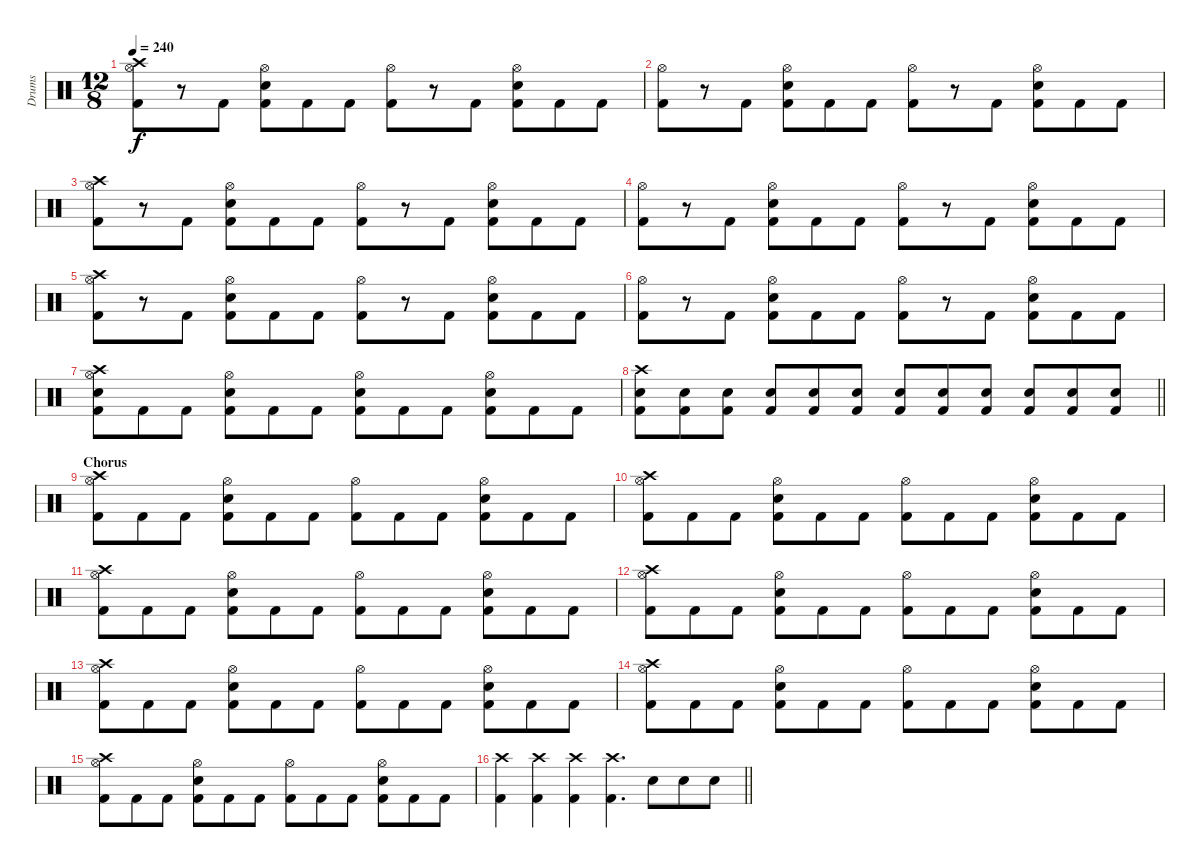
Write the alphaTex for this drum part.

\track ("Drums" "Drums") {instrument percussion}
\staff {score}
\articulation defaults
\ts (12 8)
\tempo 240
\clef neutral
\ks c
("Crash high (hit)" "Hi-Hat (open)" "Kick (hit) 2").8{dy f} r.8 "Kick (hit) 2".8 ("Hi-Hat (open)" "Snare (hit) 2" "Kick (hit) 2").8 "Kick (hit) 2".8 "Kick (hit) 2".8 ("Hi-Hat (open)" "Kick (hit) 2").8 r.8 "Kick (hit) 2".8 ("Hi-Hat (open)" "Snare (hit) 2" "Kick (hit) 2").8 "Kick (hit) 2".8 "Kick (hit) 2".8 |
("Hi-Hat (open)" "Kick (hit) 2").8 r.8 "Kick (hit) 2".8 ("Hi-Hat (open)" "Snare (hit) 2" "Kick (hit) 2").8 "Kick (hit) 2".8 "Kick (hit) 2".8 ("Hi-Hat (open)" "Kick (hit) 2").8 r.8 "Kick (hit) 2".8 ("Hi-Hat (open)" "Snare (hit) 2" "Kick (hit) 2").8 "Kick (hit) 2".8 "Kick (hit) 2".8 |
("Crash high (hit)" "Hi-Hat (open)" "Kick (hit) 2").8 r.8 "Kick (hit) 2".8 ("Hi-Hat (open)" "Snare (hit) 2" "Kick (hit) 2").8 "Kick (hit) 2".8 "Kick (hit) 2".8 ("Hi-Hat (open)" "Kick (hit) 2").8 r.8 "Kick (hit) 2".8 ("Hi-Hat (open)" "Snare (hit) 2" "Kick (hit) 2").8 "Kick (hit) 2".8 "Kick (hit) 2".8 |
("Hi-Hat (open)" "Kick (hit) 2").8 r.8 "Kick (hit) 2".8 ("Hi-Hat (open)" "Snare (hit) 2" "Kick (hit) 2").8 "Kick (hit) 2".8 "Kick (hit) 2".8 ("Hi-Hat (open)" "Kick (hit) 2").8 r.8 "Kick (hit) 2".8 ("Hi-Hat (open)" "Snare (hit) 2" "Kick (hit) 2").8 "Kick (hit) 2".8 "Kick (hit) 2".8 |
("Crash high (hit)" "Hi-Hat (open)" "Kick (hit) 2").8 r.8 "Kick (hit) 2".8 ("Hi-Hat (open)" "Snare (hit) 2" "Kick (hit) 2").8 "Kick (hit) 2".8 "Kick (hit) 2".8 ("Hi-Hat (open)" "Kick (hit) 2").8 r.8 "Kick (hit) 2".8 ("Hi-Hat (open)" "Snare (hit) 2" "Kick (hit) 2").8 "Kick (hit) 2".8 "Kick (hit) 2".8 |
("Hi-Hat (open)" "Kick (hit) 2").8 r.8 "Kick (hit) 2".8 ("Hi-Hat (open)" "Snare (hit) 2" "Kick (hit) 2").8 "Kick (hit) 2".8 "Kick (hit) 2".8 ("Hi-Hat (open)" "Kick (hit) 2").8 r.8 "Kick (hit) 2".8 ("Hi-Hat (open)" "Snare (hit) 2" "Kick (hit) 2").8 "Kick (hit) 2".8 "Kick (hit) 2".8 |
("Crash high (hit)" "Hi-Hat (open)" "Snare (hit) 2" "Kick (hit) 2").8 "Kick (hit) 2".8 "Kick (hit) 2".8 ("Hi-Hat (open)" "Snare (hit) 2" "Kick (hit) 2").8 "Kick (hit) 2".8 "Kick (hit) 2".8 ("Hi-Hat (open)" "Snare (hit) 2" "Kick (hit) 2").8 "Kick (hit) 2".8 "Kick (hit) 2".8 ("Hi-Hat (open)" "Snare (hit) 2" "Kick (hit) 2").8 "Kick (hit) 2".8 "Kick (hit) 2".8 |
\barLineRight lightlight
("Crash high (hit)" "Snare (hit) 2" "Kick (hit) 2").8 ("Snare (hit) 2" "Kick (hit) 2").8 ("Snare (hit) 2" "Kick (hit) 2").8 ("Snare (hit) 2" "Kick (hit) 2").8 ("Snare (hit) 2" "Kick (hit) 2").8 ("Snare (hit) 2" "Kick (hit) 2").8 ("Snare (hit) 2" "Kick (hit) 2").8 ("Snare (hit) 2" "Kick (hit) 2").8 ("Snare (hit) 2" "Kick (hit) 2").8 ("Snare (hit) 2" "Kick (hit) 2").8 ("Snare (hit) 2" "Kick (hit) 2").8 ("Snare (hit) 2" "Kick (hit) 2").8 |
\section ("" "Chorus")
("Crash high (hit)" "Hi-Hat (open)" "Kick (hit) 2").8 "Kick (hit) 2".8 "Kick (hit) 2".8 ("Hi-Hat (open)" "Snare (hit) 2" "Kick (hit) 2").8 "Kick (hit) 2".8 "Kick (hit) 2".8 ("Hi-Hat (open)" "Kick (hit) 2").8 "Kick (hit) 2".8 "Kick (hit) 2".8 ("Hi-Hat (open)" "Snare (hit) 2" "Kick (hit) 2").8 "Kick (hit) 2".8 "Kick (hit) 2".8 |
("Crash high (hit)" "Hi-Hat (open)" "Kick (hit) 2").8 "Kick (hit) 2".8 "Kick (hit) 2".8 ("Hi-Hat (open)" "Snare (hit) 2" "Kick (hit) 2").8 "Kick (hit) 2".8 "Kick (hit) 2".8 ("Hi-Hat (open)" "Kick (hit) 2").8 "Kick (hit) 2".8 "Kick (hit) 2".8 ("Hi-Hat (open)" "Snare (hit) 2" "Kick (hit) 2").8 "Kick (hit) 2".8 "Kick (hit) 2".8 |
("Crash high (hit)" "Hi-Hat (open)" "Kick (hit) 2").8 "Kick (hit) 2".8 "Kick (hit) 2".8 ("Hi-Hat (open)" "Snare (hit) 2" "Kick (hit) 2").8 "Kick (hit) 2".8 "Kick (hit) 2".8 ("Hi-Hat (open)" "Kick (hit) 2").8 "Kick (hit) 2".8 "Kick (hit) 2".8 ("Hi-Hat (open)" "Snare (hit) 2" "Kick (hit) 2").8 "Kick (hit) 2".8 "Kick (hit) 2".8 |
("Crash high (hit)" "Hi-Hat (open)" "Kick (hit) 2").8 "Kick (hit) 2".8 "Kick (hit) 2".8 ("Hi-Hat (open)" "Snare (hit) 2" "Kick (hit) 2").8 "Kick (hit) 2".8 "Kick (hit) 2".8 ("Hi-Hat (open)" "Kick (hit) 2").8 "Kick (hit) 2".8 "Kick (hit) 2".8 ("Hi-Hat (open)" "Snare (hit) 2" "Kick (hit) 2").8 "Kick (hit) 2".8 "Kick (hit) 2".8 |
("Crash high (hit)" "Hi-Hat (open)" "Kick (hit) 2").8 "Kick (hit) 2".8 "Kick (hit) 2".8 ("Hi-Hat (open)" "Snare (hit) 2" "Kick (hit) 2").8 "Kick (hit) 2".8 "Kick (hit) 2".8 ("Hi-Hat (open)" "Kick (hit) 2").8 "Kick (hit) 2".8 "Kick (hit) 2".8 ("Hi-Hat (open)" "Snare (hit) 2" "Kick (hit) 2").8 "Kick (hit) 2".8 "Kick (hit) 2".8 |
("Crash high (hit)" "Hi-Hat (open)" "Kick (hit) 2").8 "Kick (hit) 2".8 "Kick (hit) 2".8 ("Hi-Hat (open)" "Snare (hit) 2" "Kick (hit) 2").8 "Kick (hit) 2".8 "Kick (hit) 2".8 ("Hi-Hat (open)" "Kick (hit) 2").8 "Kick (hit) 2".8 "Kick (hit) 2".8 ("Hi-Hat (open)" "Snare (hit) 2" "Kick (hit) 2").8 "Kick (hit) 2".8 "Kick (hit) 2".8 |
("Crash high (hit)" "Hi-Hat (open)" "Kick (hit) 2").8 "Kick (hit) 2".8 "Kick (hit) 2".8 ("Hi-Hat (open)" "Snare (hit) 2" "Kick (hit) 2").8 "Kick (hit) 2".8 "Kick (hit) 2".8 ("Hi-Hat (open)" "Kick (hit) 2").8 "Kick (hit) 2".8 "Kick (hit) 2".8 ("Hi-Hat (open)" "Snare (hit) 2" "Kick (hit) 2").8 "Kick (hit) 2".8 "Kick (hit) 2".8 |
\barLineRight lightlight
("Crash high (hit)" "Kick (hit) 2").4 ("Crash high (hit)" "Kick (hit) 2").4 ("Crash high (hit)" "Kick (hit) 2").4 ("Crash high (hit)" "Kick (hit) 2").4{d} "Snare (hit) 2".8 "Snare (hit) 2".8 "Snare (hit) 2".8
